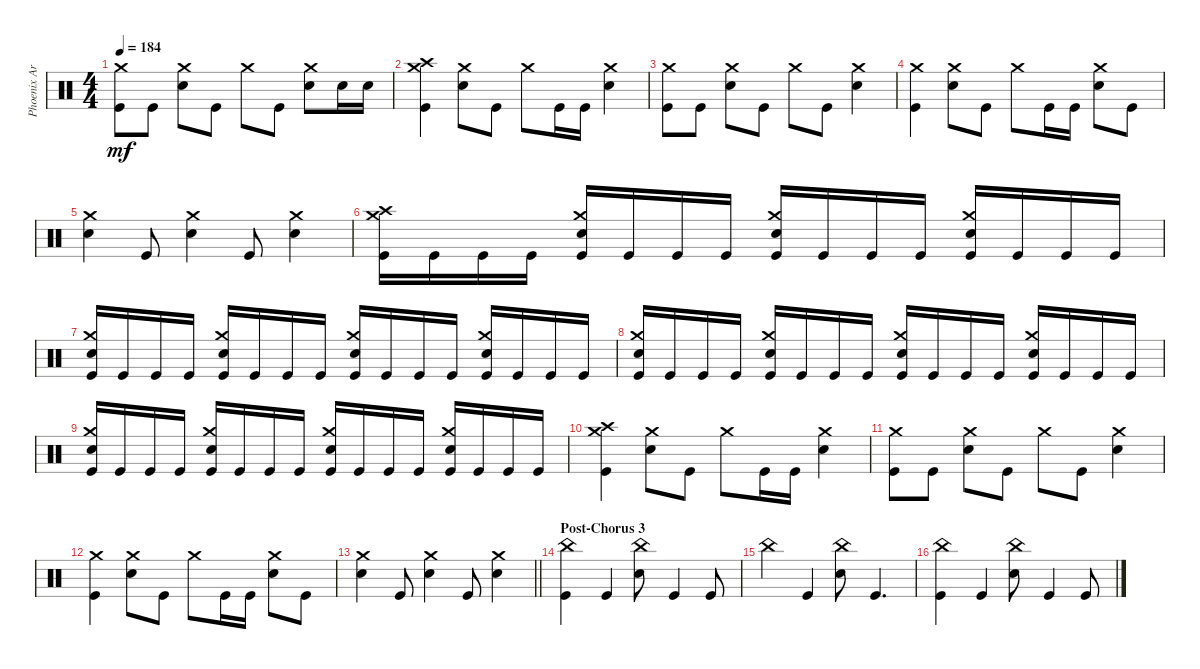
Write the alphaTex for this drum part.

\track ("Phoenix Arn-Horn (Drums)" "Phoenix Ar") {instrument percussion}
\staff {score}
\articulation defaults
\ts (4 4)
\tempo 184
\clef neutral
\ks c
("Kick (hit)" "Crash medium (hit)").8{dy mf} "Kick (hit)".8 ("Snare (hit) 2" "Crash medium (hit)").8 "Kick (hit)".8 "Crash medium (hit)".8 "Kick (hit)".8 ("Snare (hit) 2" "Crash medium (hit)").8 "Snare (hit) 2".16 "Snare (hit) 2".16 |
("Kick (hit)" "Crash medium (hit)" "Crash high (hit)").4 ("Snare (hit) 2" "Crash medium (hit)").8 "Kick (hit)".8 "Crash medium (hit)".8 "Kick (hit)".16 "Kick (hit)".16 ("Snare (hit) 2" "Crash medium (hit)").4 |
("Kick (hit)" "Crash medium (hit)").8 "Kick (hit)".8 ("Snare (hit) 2" "Crash medium (hit)").8 "Kick (hit)".8 "Crash medium (hit)".8 "Kick (hit)".8 ("Snare (hit) 2" "Crash medium (hit)").4 |
("Kick (hit)" "Crash medium (hit)").4 ("Snare (hit) 2" "Crash medium (hit)").8 "Kick (hit)".8 "Crash medium (hit)".8 "Kick (hit)".16 "Kick (hit)".16 ("Snare (hit) 2" "Crash medium (hit)").8 "Kick (hit)".8 |
("Snare (hit) 2" "Crash medium (hit)").4 "Kick (hit)".8 ("Snare (hit) 2" "Crash medium (hit)").4 "Kick (hit)".8 ("Snare (hit) 2" "Crash medium (hit)").4 |
("Kick (hit)" "Crash high (hit)" "Crash medium (hit)").16 "Kick (hit)".16 "Kick (hit)".16 "Kick (hit)".16 ("Kick (hit)" "Crash medium (hit)" "Snare (hit) 2").16 "Kick (hit)".16 "Kick (hit)".16 "Kick (hit)".16 ("Kick (hit)" "Crash medium (hit)" "Snare (hit) 2").16 "Kick (hit)".16 "Kick (hit)".16 "Kick (hit)".16 ("Kick (hit)" "Crash medium (hit)" "Snare (hit) 2").16 "Kick (hit)".16 "Kick (hit)".16 "Kick (hit)".16 |
("Kick (hit)" "Crash medium (hit)" "Snare (hit) 2").16 "Kick (hit)".16 "Kick (hit)".16 "Kick (hit)".16 ("Kick (hit)" "Crash medium (hit)" "Snare (hit) 2").16 "Kick (hit)".16 "Kick (hit)".16 "Kick (hit)".16 ("Kick (hit)" "Crash medium (hit)" "Snare (hit) 2").16 "Kick (hit)".16 "Kick (hit)".16 "Kick (hit)".16 ("Kick (hit)" "Crash medium (hit)" "Snare (hit) 2").16 "Kick (hit)".16 "Kick (hit)".16 "Kick (hit)".16 |
("Kick (hit)" "Crash medium (hit)" "Snare (hit) 2").16 "Kick (hit)".16 "Kick (hit)".16 "Kick (hit)".16 ("Kick (hit)" "Crash medium (hit)" "Snare (hit) 2").16 "Kick (hit)".16 "Kick (hit)".16 "Kick (hit)".16 ("Kick (hit)" "Crash medium (hit)" "Snare (hit) 2").16 "Kick (hit)".16 "Kick (hit)".16 "Kick (hit)".16 ("Kick (hit)" "Crash medium (hit)" "Snare (hit) 2").16 "Kick (hit)".16 "Kick (hit)".16 "Kick (hit)".16 |
("Kick (hit)" "Crash medium (hit)" "Snare (hit) 2").16 "Kick (hit)".16 "Kick (hit)".16 "Kick (hit)".16 ("Kick (hit)" "Crash medium (hit)" "Snare (hit) 2").16 "Kick (hit)".16 "Kick (hit)".16 "Kick (hit)".16 ("Kick (hit)" "Crash medium (hit)" "Snare (hit) 2").16 "Kick (hit)".16 "Kick (hit)".16 "Kick (hit)".16 ("Kick (hit)" "Crash medium (hit)" "Snare (hit) 2").16 "Kick (hit)".16 "Kick (hit)".16 "Kick (hit)".16 |
("Kick (hit)" "Crash medium (hit)" "Crash high (hit)").4 ("Snare (hit) 2" "Crash medium (hit)").8 "Kick (hit)".8 "Crash medium (hit)".8 "Kick (hit)".16 "Kick (hit)".16 ("Snare (hit) 2" "Crash medium (hit)").4 |
("Kick (hit)" "Crash medium (hit)").8 "Kick (hit)".8 ("Snare (hit) 2" "Crash medium (hit)").8 "Kick (hit)".8 "Crash medium (hit)".8 "Kick (hit)".8 ("Snare (hit) 2" "Crash medium (hit)").4 |
("Kick (hit)" "Crash medium (hit)").4 ("Snare (hit) 2" "Crash medium (hit)").8 "Kick (hit)".8 "Crash medium (hit)".8 "Kick (hit)".16 "Kick (hit)".16 ("Snare (hit) 2" "Crash medium (hit)").8 "Kick (hit)".8 |
\barLineRight lightlight
("Snare (hit) 2" "Crash medium (hit)").4 "Kick (hit)".8 ("Snare (hit) 2" "Crash medium (hit)").4 "Kick (hit)".8 ("Snare (hit) 2" "Crash medium (hit)").4 |
\section ("" "Post-Chorus 3")
("Kick (hit)" "China (hit)").4 "Kick (hit)".4 ("Snare (hit) 2" "China (hit)").8 "Kick (hit)".4 "Kick (hit)".8 |
"China (hit)".4 "Kick (hit)".4 ("Snare (hit) 2" "China (hit)").8 "Kick (hit)".4{d} |
("Kick (hit)" "China (hit)").4 "Kick (hit)".4 ("Snare (hit) 2" "China (hit)").8 "Kick (hit)".4 "Kick (hit)".8
